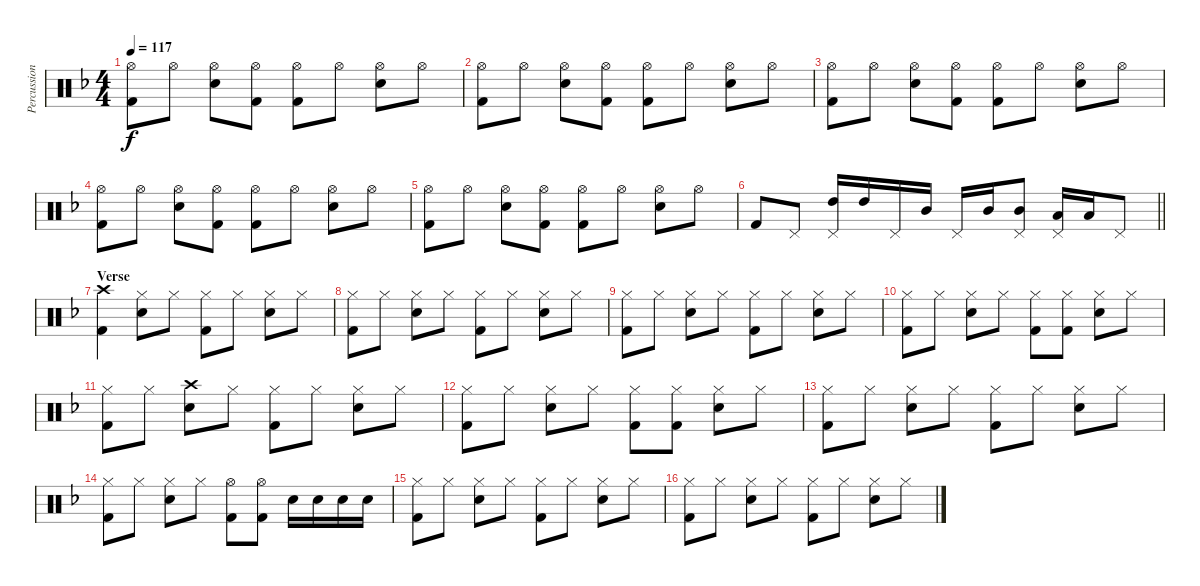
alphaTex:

\track ("Percussion" "Percussion") {instrument percussion}
\staff {score}
\articulation defaults
\ts (4 4)
\tempo 117
\clef neutral
\ks f
("Hi-Hat (open)" "Kick (hit) 2").8{dy f} "Hi-Hat (open)".8 ("Hi-Hat (open)" "Electric Snare (hit)").8 ("Hi-Hat (open)" "Kick (hit) 2").8 ("Hi-Hat (open)" "Kick (hit) 2").8 "Hi-Hat (open)".8 ("Hi-Hat (open)" "Electric Snare (hit)").8 "Hi-Hat (open)".8 |
("Hi-Hat (open)" "Kick (hit) 2").8 "Hi-Hat (open)".8 ("Hi-Hat (open)" "Electric Snare (hit)").8 ("Hi-Hat (open)" "Kick (hit) 2").8 ("Hi-Hat (open)" "Kick (hit) 2").8 "Hi-Hat (open)".8 ("Hi-Hat (open)" "Electric Snare (hit)").8 "Hi-Hat (open)".8 |
("Hi-Hat (open)" "Kick (hit) 2").8 "Hi-Hat (open)".8 ("Hi-Hat (open)" "Electric Snare (hit)").8 ("Hi-Hat (open)" "Kick (hit) 2").8 ("Hi-Hat (open)" "Kick (hit) 2").8 "Hi-Hat (open)".8 ("Hi-Hat (open)" "Electric Snare (hit)").8 "Hi-Hat (open)".8 |
("Hi-Hat (open)" "Kick (hit) 2").8 "Hi-Hat (open)".8 ("Hi-Hat (open)" "Electric Snare (hit)").8 ("Hi-Hat (open)" "Kick (hit) 2").8 ("Hi-Hat (open)" "Kick (hit) 2").8 "Hi-Hat (open)".8 ("Hi-Hat (open)" "Electric Snare (hit)").8 "Hi-Hat (open)".8 |
("Hi-Hat (open)" "Kick (hit) 2").8 "Hi-Hat (open)".8 ("Hi-Hat (open)" "Electric Snare (hit)").8 ("Hi-Hat (open)" "Kick (hit) 2").8 ("Hi-Hat (open)" "Kick (hit) 2").8 "Hi-Hat (open)".8 ("Hi-Hat (open)" "Electric Snare (hit)").8 "Hi-Hat (open)".8 |
\barLineRight lightlight "Kick (hit) 2".8 "Pedal Hi-Hat (hit)".8
("High Tom (hit)" "Pedal Hi-Hat (hit)").16 "High Tom (hit)".16 "Pedal Hi-Hat (hit)".16 "Mid Tom (hit)".16 "Pedal Hi-Hat (hit)".16 "Mid Tom (hit)".16 ("Mid Tom (hit)" "Pedal Hi-Hat (hit)").8 ("Low Tom (hit)" "Pedal Hi-Hat (hit)").16 "Low Tom (hit)".16 "Pedal Hi-Hat (hit)".8 |
\section ("" "Verse")
("Crash high (hit)" "Kick (hit) 2").4 ("Hi-Hat (closed)" "Electric Snare (hit)").8 "Hi-Hat (closed)".8 ("Hi-Hat (closed)" "Kick (hit) 2").8 "Hi-Hat (closed)".8 ("Hi-Hat (closed)" "Electric Snare (hit)").8 "Hi-Hat (closed)".8 |
("Hi-Hat (closed)" "Kick (hit) 2").8 "Hi-Hat (closed)".8 ("Hi-Hat (closed)" "Electric Snare (hit)").8 "Hi-Hat (closed)".8 ("Hi-Hat (closed)" "Kick (hit) 2").8 "Hi-Hat (closed)".8 ("Hi-Hat (closed)" "Electric Snare (hit)").8 "Hi-Hat (closed)".8 |
("Hi-Hat (closed)" "Kick (hit) 2").8 "Hi-Hat (closed)".8 ("Hi-Hat (closed)" "Electric Snare (hit)").8 "Hi-Hat (closed)".8 ("Hi-Hat (closed)" "Kick (hit) 2").8 "Hi-Hat (closed)".8 ("Hi-Hat (closed)" "Electric Snare (hit)").8 "Hi-Hat (closed)".8 |
("Hi-Hat (closed)" "Kick (hit) 2").8 "Hi-Hat (closed)".8 ("Hi-Hat (closed)" "Electric Snare (hit)").8 "Hi-Hat (closed)".8 ("Hi-Hat (closed)" "Kick (hit) 2").8 ("Hi-Hat (closed)" "Kick (hit) 2").8 ("Hi-Hat (closed)" "Electric Snare (hit)").8 "Hi-Hat (closed)".8 |
("Hi-Hat (closed)" "Kick (hit) 2").8 "Hi-Hat (closed)".8 ("Crash high (hit)" "Electric Snare (hit)").8 "Hi-Hat (closed)".8 ("Hi-Hat (closed)" "Kick (hit) 2").8 "Hi-Hat (closed)".8 ("Hi-Hat (closed)" "Electric Snare (hit)").8 "Hi-Hat (closed)".8 |
("Hi-Hat (closed)" "Kick (hit) 2").8 "Hi-Hat (closed)".8 ("Hi-Hat (closed)" "Electric Snare (hit)").8 "Hi-Hat (closed)".8 ("Hi-Hat (closed)" "Kick (hit) 2").8 ("Hi-Hat (closed)" "Kick (hit) 2").8 ("Hi-Hat (closed)" "Electric Snare (hit)").8 "Hi-Hat (closed)".8 |
("Hi-Hat (closed)" "Kick (hit) 2").8 "Hi-Hat (closed)".8 ("Hi-Hat (closed)" "Electric Snare (hit)").8 "Hi-Hat (closed)".8 ("Hi-Hat (closed)" "Kick (hit) 2").8 "Hi-Hat (closed)".8 ("Hi-Hat (closed)" "Electric Snare (hit)").8 "Hi-Hat (closed)".8 |
("Hi-Hat (closed)" "Kick (hit) 2").8 "Hi-Hat (closed)".8 ("Hi-Hat (closed)" "Electric Snare (hit)").8 "Hi-Hat (closed)".8 ("Hi-Hat (open)" "Kick (hit) 2").8 ("Hi-Hat (open)" "Kick (hit) 2").8 "Electric Snare (hit)".16 "Electric Snare (hit)".16 "Electric Snare (hit)".16 "Electric Snare (hit)".16 |
("Hi-Hat (closed)" "Kick (hit) 2").8 "Hi-Hat (closed)".8 ("Hi-Hat (closed)" "Electric Snare (hit)").8 "Hi-Hat (closed)".8 ("Hi-Hat (closed)" "Kick (hit) 2").8 "Hi-Hat (closed)".8 ("Hi-Hat (closed)" "Electric Snare (hit)").8 "Hi-Hat (closed)".8 |
("Hi-Hat (closed)" "Kick (hit) 2").8 "Hi-Hat (closed)".8 ("Hi-Hat (closed)" "Electric Snare (hit)").8 "Hi-Hat (closed)".8 ("Hi-Hat (closed)" "Kick (hit) 2").8 "Hi-Hat (closed)".8 ("Hi-Hat (closed)" "Electric Snare (hit)").8 "Hi-Hat (closed)".8
